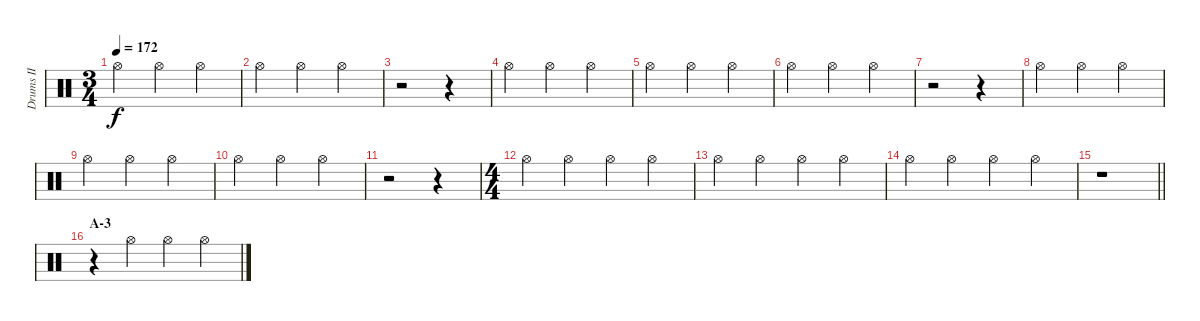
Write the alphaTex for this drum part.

\track ("Drums II" "Drums II") {instrument percussion}
\staff {score}
\articulation defaults
\ts (3 4)
\tempo 172
\clef neutral
\ks c "Hi-Hat (open)".4{dy f} "Hi-Hat (open)".4 "Hi-Hat (open)".4
|
"Hi-Hat (open)".4 "Hi-Hat (open)".4 "Hi-Hat (open)".4 |
r.2 r.4 |
"Hi-Hat (open)".4 "Hi-Hat (open)".4 "Hi-Hat (open)".4 |
"Hi-Hat (open)".4 "Hi-Hat (open)".4 "Hi-Hat (open)".4 |
"Hi-Hat (open)".4 "Hi-Hat (open)".4 "Hi-Hat (open)".4 |
r.2 r.4 |
"Hi-Hat (open)".4 "Hi-Hat (open)".4 "Hi-Hat (open)".4 |
"Hi-Hat (open)".4 "Hi-Hat (open)".4 "Hi-Hat (open)".4 |
"Hi-Hat (open)".4 "Hi-Hat (open)".4 "Hi-Hat (open)".4 |
r.2 r.4 |
\ts (4 4)
"Hi-Hat (open)".4 "Hi-Hat (open)".4 "Hi-Hat (open)".4 "Hi-Hat (open)".4 |
"Hi-Hat (open)".4 "Hi-Hat (open)".4 "Hi-Hat (open)".4 "Hi-Hat (open)".4 |
"Hi-Hat (open)".4 "Hi-Hat (open)".4 "Hi-Hat (open)".4 "Hi-Hat (open)".4 |
\barLineRight lightlight
r.1 |
\section ("" "A-3")
r.4 "Hi-Hat (open)".4 "Hi-Hat (open)".4 "Hi-Hat (open)".4
